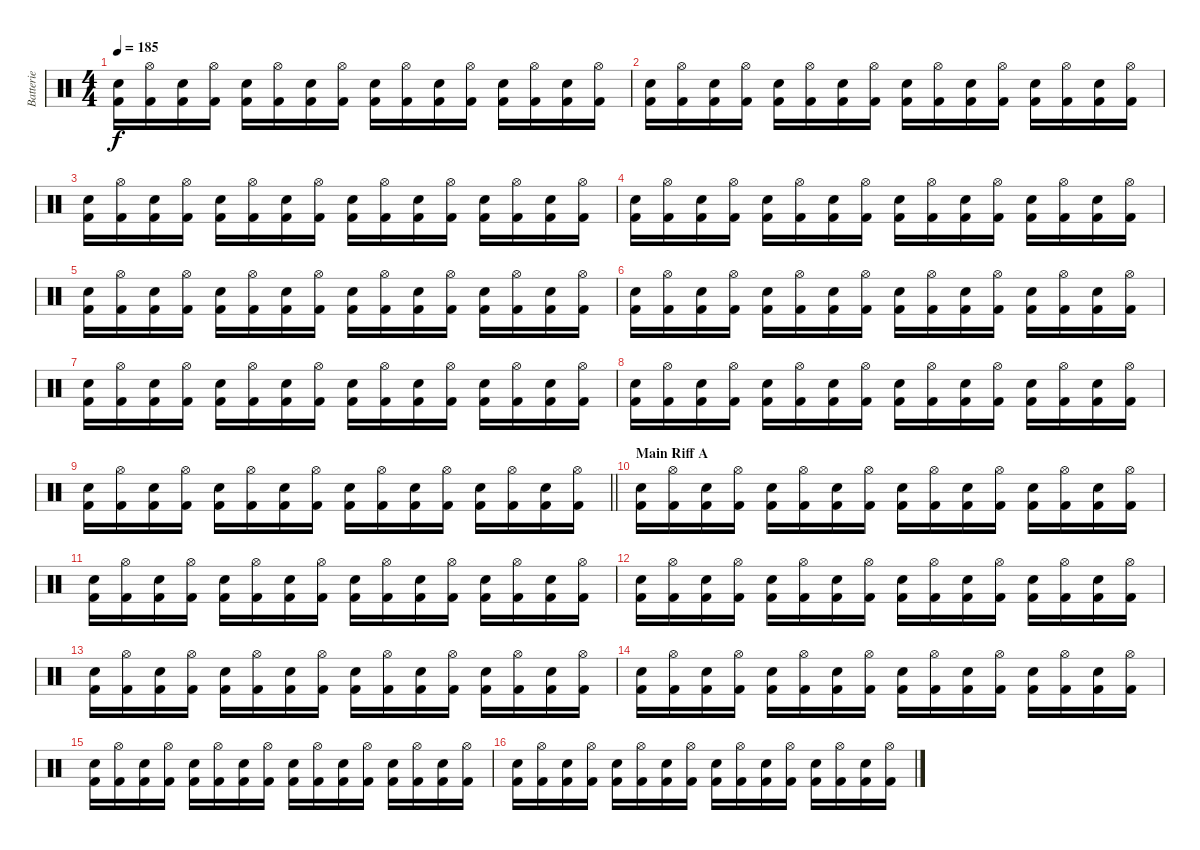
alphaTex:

\track ("Batterie" "Batterie") {instrument percussion}
\staff {score}
\articulation defaults
\ts (4 4)
\tempo 185
\clef neutral
\ks c
("Electric Snare (hit)" "Kick (hit) 2").16{dy f} ("Hi-Hat (open)" "Kick (hit) 2").16 ("Electric Snare (hit)" "Kick (hit) 2").16 ("Hi-Hat (open)" "Kick (hit) 2").16 ("Electric Snare (hit)" "Kick (hit) 2").16 ("Hi-Hat (open)" "Kick (hit) 2").16 ("Electric Snare (hit)" "Kick (hit) 2").16 ("Hi-Hat (open)" "Kick (hit) 2").16 ("Electric Snare (hit)" "Kick (hit) 2").16 ("Hi-Hat (open)" "Kick (hit) 2").16 ("Electric Snare (hit)" "Kick (hit) 2").16 ("Hi-Hat (open)" "Kick (hit) 2").16 ("Electric Snare (hit)" "Kick (hit) 2").16 ("Hi-Hat (open)" "Kick (hit) 2").16 ("Electric Snare (hit)" "Kick (hit) 2").16 ("Hi-Hat (open)" "Kick (hit) 2").16 |
("Electric Snare (hit)" "Kick (hit) 2").16 ("Hi-Hat (open)" "Kick (hit) 2").16 ("Electric Snare (hit)" "Kick (hit) 2").16 ("Hi-Hat (open)" "Kick (hit) 2").16 ("Electric Snare (hit)" "Kick (hit) 2").16 ("Hi-Hat (open)" "Kick (hit) 2").16 ("Electric Snare (hit)" "Kick (hit) 2").16 ("Hi-Hat (open)" "Kick (hit) 2").16 ("Electric Snare (hit)" "Kick (hit) 2").16 ("Hi-Hat (open)" "Kick (hit) 2").16 ("Electric Snare (hit)" "Kick (hit) 2").16 ("Hi-Hat (open)" "Kick (hit) 2").16 ("Electric Snare (hit)" "Kick (hit) 2").16 ("Hi-Hat (open)" "Kick (hit) 2").16 ("Electric Snare (hit)" "Kick (hit) 2").16 ("Hi-Hat (open)" "Kick (hit) 2").16 |
("Electric Snare (hit)" "Kick (hit) 2").16 ("Hi-Hat (open)" "Kick (hit) 2").16 ("Electric Snare (hit)" "Kick (hit) 2").16 ("Hi-Hat (open)" "Kick (hit) 2").16 ("Electric Snare (hit)" "Kick (hit) 2").16 ("Hi-Hat (open)" "Kick (hit) 2").16 ("Electric Snare (hit)" "Kick (hit) 2").16 ("Hi-Hat (open)" "Kick (hit) 2").16 ("Electric Snare (hit)" "Kick (hit) 2").16 ("Hi-Hat (open)" "Kick (hit) 2").16 ("Electric Snare (hit)" "Kick (hit) 2").16 ("Hi-Hat (open)" "Kick (hit) 2").16 ("Electric Snare (hit)" "Kick (hit) 2").16 ("Hi-Hat (open)" "Kick (hit) 2").16 ("Electric Snare (hit)" "Kick (hit) 2").16 ("Hi-Hat (open)" "Kick (hit) 2").16 |
("Electric Snare (hit)" "Kick (hit) 2").16 ("Hi-Hat (open)" "Kick (hit) 2").16 ("Electric Snare (hit)" "Kick (hit) 2").16 ("Hi-Hat (open)" "Kick (hit) 2").16 ("Electric Snare (hit)" "Kick (hit) 2").16 ("Hi-Hat (open)" "Kick (hit) 2").16 ("Electric Snare (hit)" "Kick (hit) 2").16 ("Hi-Hat (open)" "Kick (hit) 2").16 ("Electric Snare (hit)" "Kick (hit) 2").16 ("Hi-Hat (open)" "Kick (hit) 2").16 ("Electric Snare (hit)" "Kick (hit) 2").16 ("Hi-Hat (open)" "Kick (hit) 2").16 ("Electric Snare (hit)" "Kick (hit) 2").16 ("Hi-Hat (open)" "Kick (hit) 2").16 ("Electric Snare (hit)" "Kick (hit) 2").16 ("Hi-Hat (open)" "Kick (hit) 2").16 |
("Electric Snare (hit)" "Kick (hit) 2").16 ("Hi-Hat (open)" "Kick (hit) 2").16 ("Electric Snare (hit)" "Kick (hit) 2").16 ("Hi-Hat (open)" "Kick (hit) 2").16 ("Electric Snare (hit)" "Kick (hit) 2").16 ("Hi-Hat (open)" "Kick (hit) 2").16 ("Electric Snare (hit)" "Kick (hit) 2").16 ("Hi-Hat (open)" "Kick (hit) 2").16 ("Electric Snare (hit)" "Kick (hit) 2").16 ("Hi-Hat (open)" "Kick (hit) 2").16 ("Electric Snare (hit)" "Kick (hit) 2").16 ("Hi-Hat (open)" "Kick (hit) 2").16 ("Electric Snare (hit)" "Kick (hit) 2").16 ("Hi-Hat (open)" "Kick (hit) 2").16 ("Electric Snare (hit)" "Kick (hit) 2").16 ("Hi-Hat (open)" "Kick (hit) 2").16 |
("Electric Snare (hit)" "Kick (hit) 2").16 ("Hi-Hat (open)" "Kick (hit) 2").16 ("Electric Snare (hit)" "Kick (hit) 2").16 ("Hi-Hat (open)" "Kick (hit) 2").16 ("Electric Snare (hit)" "Kick (hit) 2").16 ("Hi-Hat (open)" "Kick (hit) 2").16 ("Electric Snare (hit)" "Kick (hit) 2").16 ("Hi-Hat (open)" "Kick (hit) 2").16 ("Electric Snare (hit)" "Kick (hit) 2").16 ("Hi-Hat (open)" "Kick (hit) 2").16 ("Electric Snare (hit)" "Kick (hit) 2").16 ("Hi-Hat (open)" "Kick (hit) 2").16 ("Electric Snare (hit)" "Kick (hit) 2").16 ("Hi-Hat (open)" "Kick (hit) 2").16 ("Electric Snare (hit)" "Kick (hit) 2").16 ("Hi-Hat (open)" "Kick (hit) 2").16 |
("Electric Snare (hit)" "Kick (hit) 2").16 ("Hi-Hat (open)" "Kick (hit) 2").16 ("Electric Snare (hit)" "Kick (hit) 2").16 ("Hi-Hat (open)" "Kick (hit) 2").16 ("Electric Snare (hit)" "Kick (hit) 2").16 ("Hi-Hat (open)" "Kick (hit) 2").16 ("Electric Snare (hit)" "Kick (hit) 2").16 ("Hi-Hat (open)" "Kick (hit) 2").16 ("Electric Snare (hit)" "Kick (hit) 2").16 ("Hi-Hat (open)" "Kick (hit) 2").16 ("Electric Snare (hit)" "Kick (hit) 2").16 ("Hi-Hat (open)" "Kick (hit) 2").16 ("Electric Snare (hit)" "Kick (hit) 2").16 ("Hi-Hat (open)" "Kick (hit) 2").16 ("Electric Snare (hit)" "Kick (hit) 2").16 ("Hi-Hat (open)" "Kick (hit) 2").16 |
("Electric Snare (hit)" "Kick (hit) 2").16 ("Hi-Hat (open)" "Kick (hit) 2").16 ("Electric Snare (hit)" "Kick (hit) 2").16 ("Hi-Hat (open)" "Kick (hit) 2").16 ("Electric Snare (hit)" "Kick (hit) 2").16 ("Hi-Hat (open)" "Kick (hit) 2").16 ("Electric Snare (hit)" "Kick (hit) 2").16 ("Hi-Hat (open)" "Kick (hit) 2").16 ("Electric Snare (hit)" "Kick (hit) 2").16 ("Hi-Hat (open)" "Kick (hit) 2").16 ("Electric Snare (hit)" "Kick (hit) 2").16 ("Hi-Hat (open)" "Kick (hit) 2").16 ("Electric Snare (hit)" "Kick (hit) 2").16 ("Hi-Hat (open)" "Kick (hit) 2").16 ("Electric Snare (hit)" "Kick (hit) 2").16 ("Hi-Hat (open)" "Kick (hit) 2").16 |
\barLineRight lightlight
("Electric Snare (hit)" "Kick (hit) 2").16 ("Hi-Hat (open)" "Kick (hit) 2").16 ("Electric Snare (hit)" "Kick (hit) 2").16 ("Hi-Hat (open)" "Kick (hit) 2").16 ("Electric Snare (hit)" "Kick (hit) 2").16 ("Hi-Hat (open)" "Kick (hit) 2").16 ("Electric Snare (hit)" "Kick (hit) 2").16 ("Hi-Hat (open)" "Kick (hit) 2").16 ("Electric Snare (hit)" "Kick (hit) 2").16 ("Hi-Hat (open)" "Kick (hit) 2").16 ("Electric Snare (hit)" "Kick (hit) 2").16 ("Hi-Hat (open)" "Kick (hit) 2").16 ("Electric Snare (hit)" "Kick (hit) 2").16 ("Hi-Hat (open)" "Kick (hit) 2").16 ("Electric Snare (hit)" "Kick (hit) 2").16 ("Hi-Hat (open)" "Kick (hit) 2").16 |
\section ("" "Main Riff A")
("Electric Snare (hit)" "Kick (hit) 2").16 ("Hi-Hat (open)" "Kick (hit) 2").16 ("Electric Snare (hit)" "Kick (hit) 2").16 ("Hi-Hat (open)" "Kick (hit) 2").16 ("Electric Snare (hit)" "Kick (hit) 2").16 ("Hi-Hat (open)" "Kick (hit) 2").16 ("Electric Snare (hit)" "Kick (hit) 2").16 ("Hi-Hat (open)" "Kick (hit) 2").16 ("Electric Snare (hit)" "Kick (hit) 2").16 ("Hi-Hat (open)" "Kick (hit) 2").16 ("Electric Snare (hit)" "Kick (hit) 2").16 ("Hi-Hat (open)" "Kick (hit) 2").16 ("Electric Snare (hit)" "Kick (hit) 2").16 ("Hi-Hat (open)" "Kick (hit) 2").16 ("Electric Snare (hit)" "Kick (hit) 2").16 ("Hi-Hat (open)" "Kick (hit) 2").16 |
("Electric Snare (hit)" "Kick (hit) 2").16 ("Hi-Hat (open)" "Kick (hit) 2").16 ("Electric Snare (hit)" "Kick (hit) 2").16 ("Hi-Hat (open)" "Kick (hit) 2").16 ("Electric Snare (hit)" "Kick (hit) 2").16 ("Hi-Hat (open)" "Kick (hit) 2").16 ("Electric Snare (hit)" "Kick (hit) 2").16 ("Hi-Hat (open)" "Kick (hit) 2").16 ("Electric Snare (hit)" "Kick (hit) 2").16 ("Hi-Hat (open)" "Kick (hit) 2").16 ("Electric Snare (hit)" "Kick (hit) 2").16 ("Hi-Hat (open)" "Kick (hit) 2").16 ("Electric Snare (hit)" "Kick (hit) 2").16 ("Hi-Hat (open)" "Kick (hit) 2").16 ("Electric Snare (hit)" "Kick (hit) 2").16 ("Hi-Hat (open)" "Kick (hit) 2").16 |
("Electric Snare (hit)" "Kick (hit) 2").16 ("Hi-Hat (open)" "Kick (hit) 2").16 ("Electric Snare (hit)" "Kick (hit) 2").16 ("Hi-Hat (open)" "Kick (hit) 2").16 ("Electric Snare (hit)" "Kick (hit) 2").16 ("Hi-Hat (open)" "Kick (hit) 2").16 ("Electric Snare (hit)" "Kick (hit) 2").16 ("Hi-Hat (open)" "Kick (hit) 2").16 ("Electric Snare (hit)" "Kick (hit) 2").16 ("Hi-Hat (open)" "Kick (hit) 2").16 ("Electric Snare (hit)" "Kick (hit) 2").16 ("Hi-Hat (open)" "Kick (hit) 2").16 ("Electric Snare (hit)" "Kick (hit) 2").16 ("Hi-Hat (open)" "Kick (hit) 2").16 ("Electric Snare (hit)" "Kick (hit) 2").16 ("Hi-Hat (open)" "Kick (hit) 2").16 |
("Electric Snare (hit)" "Kick (hit) 2").16 ("Hi-Hat (open)" "Kick (hit) 2").16 ("Electric Snare (hit)" "Kick (hit) 2").16 ("Hi-Hat (open)" "Kick (hit) 2").16 ("Electric Snare (hit)" "Kick (hit) 2").16 ("Hi-Hat (open)" "Kick (hit) 2").16 ("Electric Snare (hit)" "Kick (hit) 2").16 ("Hi-Hat (open)" "Kick (hit) 2").16 ("Electric Snare (hit)" "Kick (hit) 2").16 ("Hi-Hat (open)" "Kick (hit) 2").16 ("Electric Snare (hit)" "Kick (hit) 2").16 ("Hi-Hat (open)" "Kick (hit) 2").16 ("Electric Snare (hit)" "Kick (hit) 2").16 ("Hi-Hat (open)" "Kick (hit) 2").16 ("Electric Snare (hit)" "Kick (hit) 2").16 ("Hi-Hat (open)" "Kick (hit) 2").16 |
("Electric Snare (hit)" "Kick (hit) 2").16 ("Hi-Hat (open)" "Kick (hit) 2").16 ("Electric Snare (hit)" "Kick (hit) 2").16 ("Hi-Hat (open)" "Kick (hit) 2").16 ("Electric Snare (hit)" "Kick (hit) 2").16 ("Hi-Hat (open)" "Kick (hit) 2").16 ("Electric Snare (hit)" "Kick (hit) 2").16 ("Hi-Hat (open)" "Kick (hit) 2").16 ("Electric Snare (hit)" "Kick (hit) 2").16 ("Hi-Hat (open)" "Kick (hit) 2").16 ("Electric Snare (hit)" "Kick (hit) 2").16 ("Hi-Hat (open)" "Kick (hit) 2").16 ("Electric Snare (hit)" "Kick (hit) 2").16 ("Hi-Hat (open)" "Kick (hit) 2").16 ("Electric Snare (hit)" "Kick (hit) 2").16 ("Hi-Hat (open)" "Kick (hit) 2").16 |
("Electric Snare (hit)" "Kick (hit) 2").16 ("Hi-Hat (open)" "Kick (hit) 2").16 ("Electric Snare (hit)" "Kick (hit) 2").16 ("Hi-Hat (open)" "Kick (hit) 2").16 ("Electric Snare (hit)" "Kick (hit) 2").16 ("Hi-Hat (open)" "Kick (hit) 2").16 ("Electric Snare (hit)" "Kick (hit) 2").16 ("Hi-Hat (open)" "Kick (hit) 2").16 ("Electric Snare (hit)" "Kick (hit) 2").16 ("Hi-Hat (open)" "Kick (hit) 2").16 ("Electric Snare (hit)" "Kick (hit) 2").16 ("Hi-Hat (open)" "Kick (hit) 2").16 ("Electric Snare (hit)" "Kick (hit) 2").16 ("Hi-Hat (open)" "Kick (hit) 2").16 ("Electric Snare (hit)" "Kick (hit) 2").16 ("Hi-Hat (open)" "Kick (hit) 2").16 |
("Electric Snare (hit)" "Kick (hit) 2").16 ("Hi-Hat (open)" "Kick (hit) 2").16 ("Electric Snare (hit)" "Kick (hit) 2").16 ("Hi-Hat (open)" "Kick (hit) 2").16 ("Electric Snare (hit)" "Kick (hit) 2").16 ("Hi-Hat (open)" "Kick (hit) 2").16 ("Electric Snare (hit)" "Kick (hit) 2").16 ("Hi-Hat (open)" "Kick (hit) 2").16 ("Electric Snare (hit)" "Kick (hit) 2").16 ("Hi-Hat (open)" "Kick (hit) 2").16 ("Electric Snare (hit)" "Kick (hit) 2").16 ("Hi-Hat (open)" "Kick (hit) 2").16 ("Electric Snare (hit)" "Kick (hit) 2").16 ("Hi-Hat (open)" "Kick (hit) 2").16 ("Electric Snare (hit)" "Kick (hit) 2").16 ("Hi-Hat (open)" "Kick (hit) 2").16
